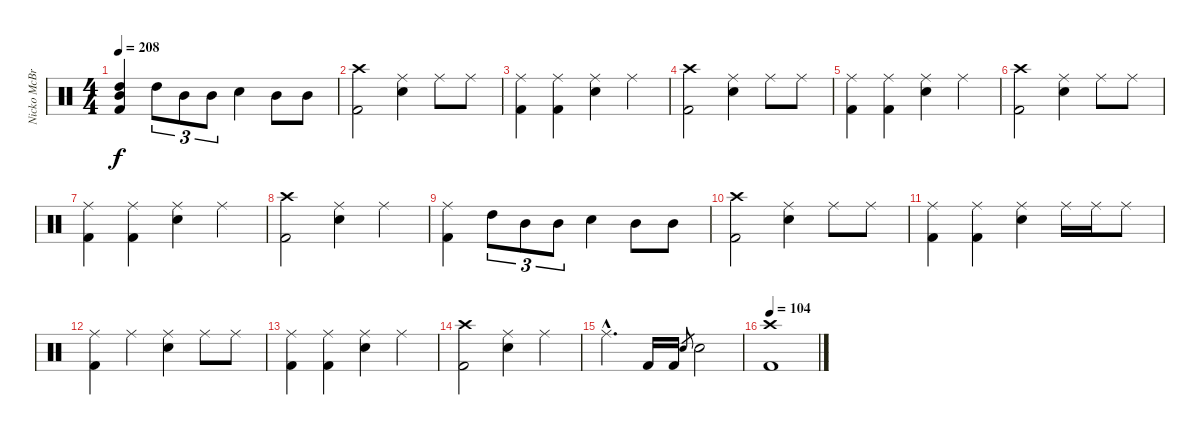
\track ("Nicko McBrain" "Nicko McBr") {instrument percussion}
\staff {score}
\articulation defaults
\ts (4 4)
\tempo 208
\clef neutral
\ks c
("High Tom (hit)" "Mid Tom (hit)" "Kick (hit) 2").4{dy f} "High Tom (hit)".8{tu (3 2)} "Mid Tom (hit)".8{tu (3 2)} "Mid Tom (hit)".8{tu (3 2)} "Electric Snare (hit)".4 "Mid Tom (hit)".8 "Mid Tom (hit)".8 |
("Crash high (hit)" "Kick (hit) 2").2 ("Ride (middle)" "Electric Snare (hit)").4 "Ride (middle)".8 "Ride (middle)".8 |
("Ride (middle)" "Kick (hit) 2").4 ("Ride (middle)" "Kick (hit) 2").4 ("Ride (middle)" "Electric Snare (hit)").4 "Ride (middle)".4 |
("Crash high (hit)" "Kick (hit) 2").2 ("Ride (middle)" "Electric Snare (hit)").4 "Ride (middle)".8 "Ride (middle)".8 |
("Ride (middle)" "Kick (hit) 2").4 ("Ride (middle)" "Kick (hit) 2").4 ("Ride (middle)" "Electric Snare (hit)").4 "Ride (middle)".4 |
("Crash high (hit)" "Kick (hit) 2").2 ("Ride (middle)" "Electric Snare (hit)").4 "Ride (middle)".8 "Ride (middle)".8 |
("Ride (middle)" "Kick (hit) 2").4 ("Ride (middle)" "Kick (hit) 2").4 ("Ride (middle)" "Electric Snare (hit)").4 "Ride (middle)".4 |
("Crash high (hit)" "Kick (hit) 2").2 ("Ride (middle)" "Electric Snare (hit)").4 "Ride (middle)".4 |
("Ride (middle)" "Kick (hit) 2").4 "High Tom (hit)".8{tu (3 2)} "Mid Tom (hit)".8{tu (3 2)} "Mid Tom (hit)".8{tu (3 2)} "Electric Snare (hit)".4 "Mid Tom (hit)".8 "Mid Tom (hit)".8 |
("Crash high (hit)" "Kick (hit) 2").2 ("Ride (middle)" "Electric Snare (hit)").4 "Ride (middle)".8 "Ride (middle)".8 |
("Ride (middle)" "Kick (hit) 2").4 ("Ride (middle)" "Kick (hit) 2").4 ("Ride (middle)" "Electric Snare (hit)").4 "Ride (middle)".16 "Ride (middle)".16 "Ride (middle)".8 |
("Ride (middle)" "Kick (hit) 2").4 "Ride (middle)".4 ("Ride (middle)" "Electric Snare (hit)").4 "Ride (middle)".8 "Ride (middle)".8 |
("Ride (middle)" "Kick (hit) 2").4 ("Ride (middle)" "Kick (hit) 2").4 ("Ride (middle)" "Electric Snare (hit)").4 "Ride (middle)".4 |
("Crash high (hit)" "Kick (hit) 2").2 ("Ride (middle)" "Electric Snare (hit)").4 "Ride (middle)".4 |
"Ride (middle)"{hac}.4{d} "Kick (hit) 2".16 "Kick (hit) 2".16 "Electric Snare (hit)".8{gr} "Electric Snare (hit)".2 |
\tempo 104
("Crash high (hit)" "Kick (hit) 2").1
